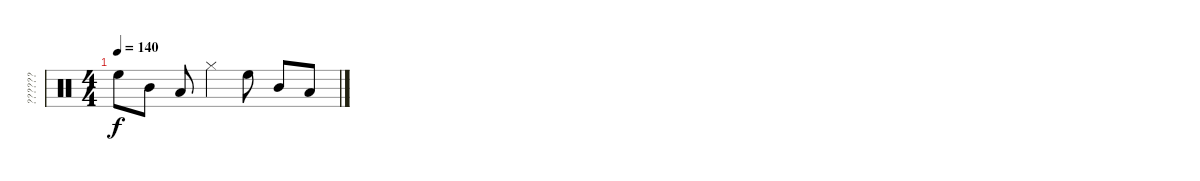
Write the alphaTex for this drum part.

\track ("??????" "??????") {instrument percussion}
\staff {score}
\articulation defaults
\ts (4 4)
\tempo 140
\clef neutral
\ks c "High Floor Tom (hit)".8{dy f} "Mid Tom (hit)".8 "Low Tom (hit)".8 "Hi-Hat (closed)".4 "High Floor Tom (hit)".8 "Mid Tom (hit)".8 "Low Tom (hit)".8
